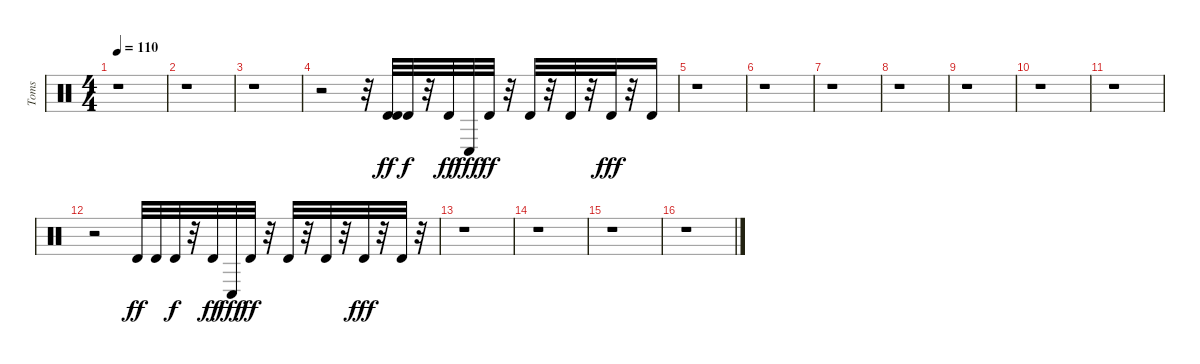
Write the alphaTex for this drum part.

\track ("Toms" "Toms") {instrument percussion}
\staff {score}
\articulation defaults
\ts (4 4)
\tempo 110
\clef neutral
\ks c
r.1{dy fff} |
r.1 |
r.1 |
r.2 r.32 ("Timbale high (hit)" "Timbale high (hit)").32{dy ff} "Timbale high (hit)".32{dy f} r.32 "Timbale high (hit)".32{dy ff} "Conga low (hit)".32{dy fff} "Timbale high (hit)".32{dy ff} r.32 "Timbale high (hit)".32 r.32 "Timbale high (hit)".32 r.32 "Timbale high (hit)".32{dy fff} r.32 "Timbale high (hit)".16 |
r.1 |
r.1 |
r.1 |
r.1 |
r.1 |
r.1 |
r.1 |
r.2 "Timbale high (hit)".32{dy ff} "Timbale high (hit)".32 "Timbale high (hit)".32{dy f} r.32 "Timbale high (hit)".32{dy ff} "Conga low (hit)".32{dy fff} "Timbale high (hit)".32{dy ff} r.32 "Timbale high (hit)".32 r.32 "Timbale high (hit)".32 r.32 "Timbale high (hit)".32{dy fff} r.32 "Timbale high (hit)".32 r.32 |
r.1 |
r.1 |
r.1 |
r.1
